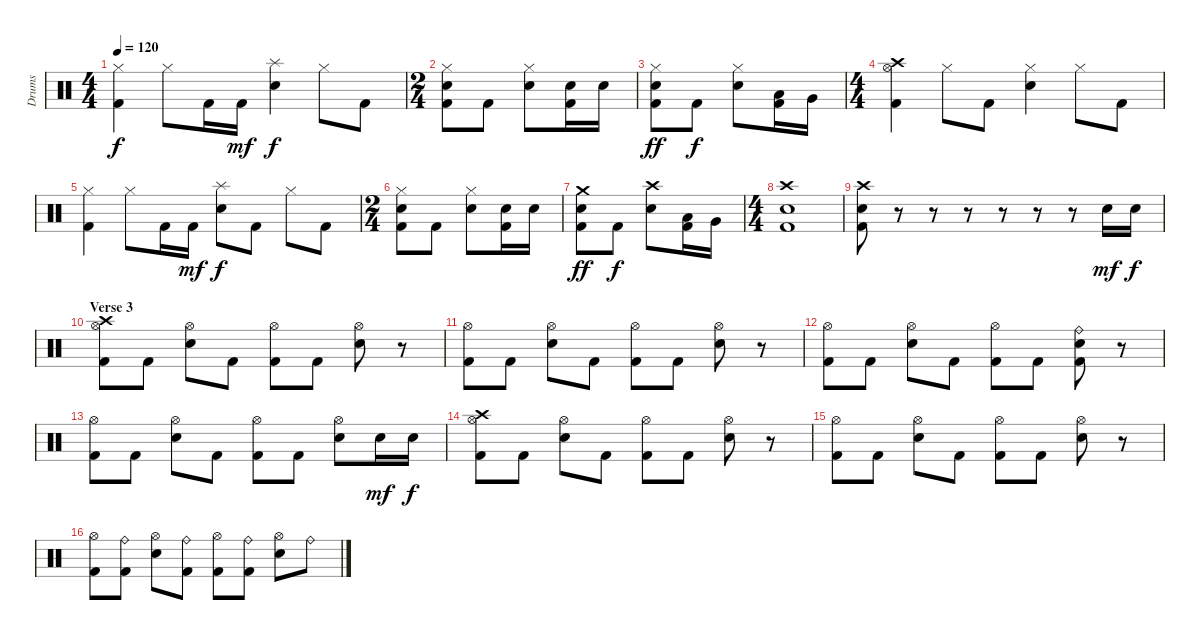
\track ("Drums" "Drums") {instrument percussion}
\staff {score}
\articulation defaults
\ts (4 4)
\tempo 120
\clef neutral
\ks c
("Hi-Hat (closed)" "Kick (hit) 2").4{dy f} "Hi-Hat (closed)".8 "Kick (hit) 2".16 "Kick (hit) 2".16{dy mf} ("Splash (hit)" "Electric Snare (hit)").4{dy f} "Hi-Hat (closed)".8 "Kick (hit) 2".8 |
\ts (2 4)
("Hi-Hat (closed)" "Electric Snare (hit)" "Kick (hit) 2").8 "Kick (hit) 2".8 ("Hi-Hat (closed)" "Electric Snare (hit)").8 ("Electric Snare (hit)" "Kick (hit) 2").16 "Electric Snare (hit)".16 |
("Hi-Hat (closed)" "Electric Snare (hit)" "Kick (hit) 2").8{dy ff} "Kick (hit) 2".8{dy f} ("Hi-Hat (closed)" "Electric Snare (hit)").8 ("Low Tom (hit)" "Kick (hit) 2").16 "Very Low Tom (hit)".16 |
\ts (4 4)
("Hi-Hat (open)" "Crash high (hit)" "Kick (hit) 2").4 "Hi-Hat (closed)".8 "Kick (hit) 2".8 ("Hi-Hat (closed)" "Electric Snare (hit)").4 "Hi-Hat (closed)".8 "Kick (hit) 2".8 |
("Hi-Hat (closed)" "Kick (hit) 2").4 "Hi-Hat (closed)".8 "Kick (hit) 2".16 "Kick (hit) 2".16{dy mf} ("Splash (hit)" "Electric Snare (hit)").8{dy f} "Kick (hit) 2".8 "Hi-Hat (closed)".8 "Kick (hit) 2".8 |
\ts (2 4)
("Hi-Hat (closed)" "Electric Snare (hit)" "Kick (hit) 2").8 "Kick (hit) 2".8 ("Hi-Hat (closed)" "Electric Snare (hit)").8 ("Electric Snare (hit)" "Kick (hit) 2").16 "Electric Snare (hit)".16 |
("Crash medium (hit)" "Electric Snare (hit)" "Kick (hit) 2").8{dy ff} "Kick (hit) 2".8{dy f} ("Crash high (hit)" "Electric Snare (hit)").8 ("Low Tom (hit)" "Kick (hit) 2").16 "Very Low Tom (hit)".16 |
\ts (4 4)
("Crash high (hit)" "Electric Snare (hit)" "Kick (hit) 2").1 |
("Crash high (hit)" "Electric Snare (hit)" "Kick (hit) 2").8 r.8 r.8 r.8 r.8 r.8 r.8 "Electric Snare (hit)".16{dy mf} "Electric Snare (hit)".16{dy f} |
\section ("" "Verse 3")
("Hi-Hat (open)" "Crash high (hit)" "Kick (hit) 2").8 "Kick (hit) 2".8 ("Hi-Hat (open)" "Electric Snare (hit)").8 "Kick (hit) 2".8 ("Hi-Hat (open)" "Kick (hit) 2").8 "Kick (hit) 2".8 ("Hi-Hat (open)" "Electric Snare (hit)").8 r.8 |
("Hi-Hat (open)" "Kick (hit) 2").8 "Kick (hit) 2".8 ("Hi-Hat (open)" "Electric Snare (hit)").8 "Kick (hit) 2".8 ("Hi-Hat (open)" "Kick (hit) 2").8 "Kick (hit) 2".8 ("Hi-Hat (open)" "Electric Snare (hit)").8 r.8 |
("Hi-Hat (open)" "Kick (hit) 2").8 "Kick (hit) 2".8 ("Hi-Hat (open)" "Electric Snare (hit)").8 "Kick (hit) 2".8 ("Hi-Hat (open)" "Kick (hit) 2").8 "Kick (hit) 2".8 ("Ride (bell)" "Electric Snare (hit)" "Kick (hit) 2").8 r.8 |
("Hi-Hat (open)" "Kick (hit) 2").8 "Kick (hit) 2".8 ("Hi-Hat (open)" "Electric Snare (hit)").8 "Kick (hit) 2".8 ("Hi-Hat (open)" "Kick (hit) 2").8 "Kick (hit) 2".8 ("Hi-Hat (open)" "Electric Snare (hit)").8 "Electric Snare (hit)".16{dy mf} "Electric Snare (hit)".16{dy f} |
("Hi-Hat (open)" "Crash high (hit)" "Kick (hit) 2").8 "Kick (hit) 2".8 ("Hi-Hat (open)" "Electric Snare (hit)").8 "Kick (hit) 2".8 ("Hi-Hat (open)" "Kick (hit) 2").8 "Kick (hit) 2".8 ("Hi-Hat (open)" "Electric Snare (hit)").8 r.8 |
("Hi-Hat (open)" "Kick (hit) 2").8 "Kick (hit) 2".8 ("Hi-Hat (open)" "Electric Snare (hit)").8 "Kick (hit) 2".8 ("Hi-Hat (open)" "Kick (hit) 2").8 "Kick (hit) 2".8 ("Hi-Hat (open)" "Electric Snare (hit)").8 r.8 |
("Hi-Hat (open)" "Kick (hit) 2").8 ("Ride (bell)" "Kick (hit) 2").8 ("Hi-Hat (open)" "Electric Snare (hit)").8 ("Ride (bell)" "Kick (hit) 2").8 ("Hi-Hat (open)" "Kick (hit) 2").8 ("Ride (bell)" "Kick (hit) 2").8 ("Hi-Hat (open)" "Electric Snare (hit)").8 "Ride (bell)".8
